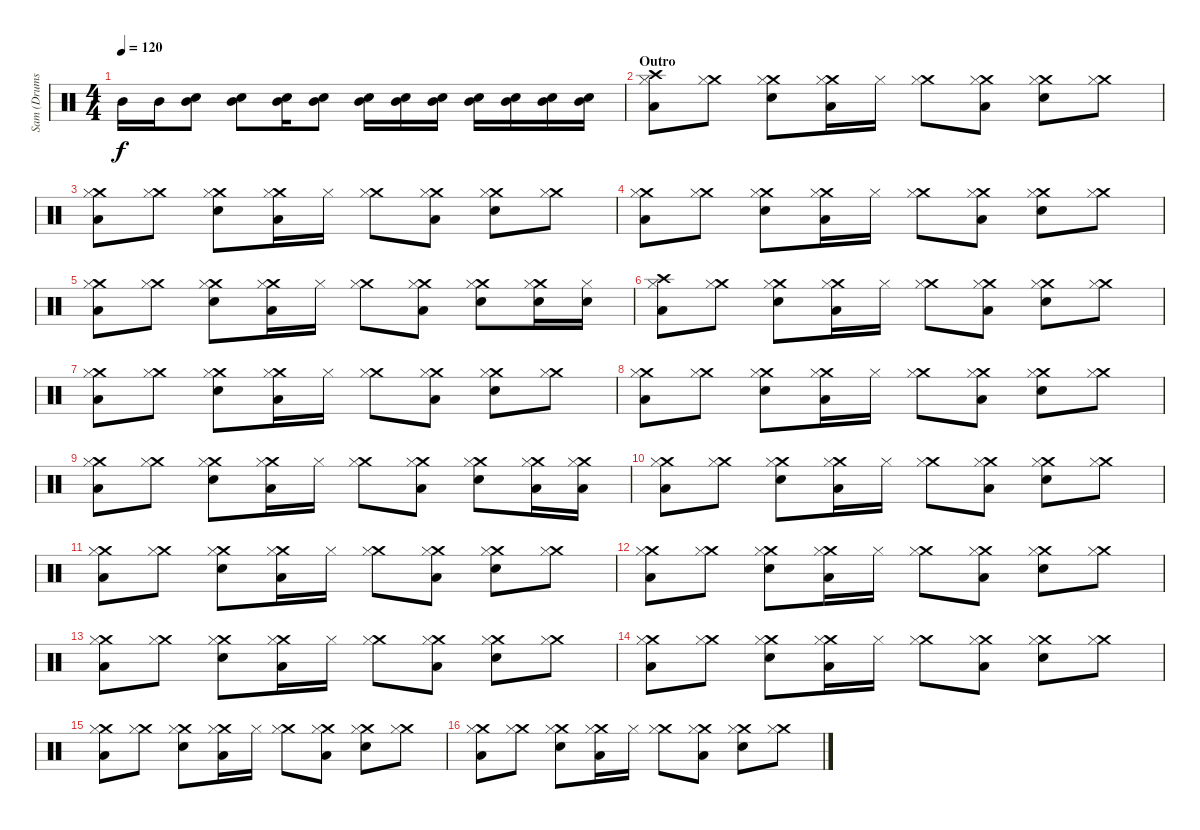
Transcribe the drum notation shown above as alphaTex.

\track ("Sam (Drums)" "Sam (Drums") {instrument percussion}
\staff {score}
\articulation defaults
\ts (4 4)
\tempo 120
\clef neutral
\ks c "Mid Tom (hit)".16{dy f} "Mid Tom (hit)".16
("Snare (hit) 2" "Mid Tom (hit)").8 ("Snare (hit) 2" "Mid Tom (hit)").8 ("Snare (hit) 2" "Mid Tom (hit)").16 ("Snare (hit) 2" "Mid Tom (hit)").8 ("Electric Snare (hit)" "Mid Tom (hit)").16 ("Snare (hit) 2" "Mid Tom (hit)").16 ("Snare (hit) 2" "Mid Tom (hit)").16 ("Electric Snare (hit)" "Mid Tom (hit)").16 ("Electric Snare (hit)" "Mid Tom (hit)").16 ("Snare (hit) 2" "Mid Tom (hit)").16 ("Snare (hit) 2" "Mid Tom (hit)").16 |
\section ("" "Outro")
("Crash high (hit)" "Low Tom (hit)" "Hi-Hat (closed)").8 ("Crash medium (hit)" "Hi-Hat (closed)").8 ("Crash medium (hit)" "Snare (hit) 2" "Hi-Hat (closed)").8 ("Crash medium (hit)" "Low Tom (hit)" "Hi-Hat (closed)").16 "Hi-Hat (closed)".16 ("Crash medium (hit)" "Hi-Hat (closed)").8 ("Crash medium (hit)" "Low Tom (hit)" "Hi-Hat (closed)").8 ("Crash medium (hit)" "Snare (hit) 2" "Hi-Hat (closed)").8 ("Crash medium (hit)" "Hi-Hat (closed)").8 |
("Crash medium (hit)" "Low Tom (hit)" "Hi-Hat (closed)").8 ("Crash medium (hit)" "Hi-Hat (closed)").8 ("Crash medium (hit)" "Snare (hit) 2" "Hi-Hat (closed)").8 ("Crash medium (hit)" "Low Tom (hit)" "Hi-Hat (closed)").16 "Hi-Hat (closed)".16 ("Crash medium (hit)" "Hi-Hat (closed)").8 ("Crash medium (hit)" "Low Tom (hit)" "Hi-Hat (closed)").8 ("Crash medium (hit)" "Snare (hit) 2" "Hi-Hat (closed)").8 ("Crash medium (hit)" "Hi-Hat (closed)").8 |
("Crash medium (hit)" "Low Tom (hit)" "Hi-Hat (closed)").8 ("Crash medium (hit)" "Hi-Hat (closed)").8 ("Crash medium (hit)" "Snare (hit) 2" "Hi-Hat (closed)").8 ("Crash medium (hit)" "Low Tom (hit)" "Hi-Hat (closed)").16 "Hi-Hat (closed)".16 ("Crash medium (hit)" "Hi-Hat (closed)").8 ("Crash medium (hit)" "Low Tom (hit)" "Hi-Hat (closed)").8 ("Crash medium (hit)" "Snare (hit) 2" "Hi-Hat (closed)").8 ("Crash medium (hit)" "Hi-Hat (closed)").8 |
("Crash medium (hit)" "Low Tom (hit)" "Hi-Hat (closed)").8 ("Crash medium (hit)" "Hi-Hat (closed)").8 ("Crash medium (hit)" "Snare (hit) 2" "Hi-Hat (closed)").8 ("Crash medium (hit)" "Low Tom (hit)" "Hi-Hat (closed)").16 "Hi-Hat (closed)".16 ("Crash medium (hit)" "Hi-Hat (closed)").8 ("Crash medium (hit)" "Low Tom (hit)" "Hi-Hat (closed)").8 ("Crash medium (hit)" "Snare (hit) 2" "Hi-Hat (closed)").8 ("Crash medium (hit)" "Electric Snare (hit)" "Hi-Hat (closed)").16 ("Snare (hit) 2" "Hi-Hat (closed)").16 |
("Crash high (hit)" "Low Tom (hit)" "Hi-Hat (closed)").8 ("Crash medium (hit)" "Hi-Hat (closed)").8 ("Crash medium (hit)" "Snare (hit) 2" "Hi-Hat (closed)").8 ("Crash medium (hit)" "Low Tom (hit)" "Hi-Hat (closed)").16 "Hi-Hat (closed)".16 ("Crash medium (hit)" "Hi-Hat (closed)").8 ("Crash medium (hit)" "Low Tom (hit)" "Hi-Hat (closed)").8 ("Crash medium (hit)" "Snare (hit) 2" "Hi-Hat (closed)").8 ("Crash medium (hit)" "Hi-Hat (closed)").8 |
("Crash medium (hit)" "Low Tom (hit)" "Hi-Hat (closed)").8 ("Crash medium (hit)" "Hi-Hat (closed)").8 ("Crash medium (hit)" "Snare (hit) 2" "Hi-Hat (closed)").8 ("Crash medium (hit)" "Low Tom (hit)" "Hi-Hat (closed)").16 "Hi-Hat (closed)".16 ("Crash medium (hit)" "Hi-Hat (closed)").8 ("Crash medium (hit)" "Low Tom (hit)" "Hi-Hat (closed)").8 ("Crash medium (hit)" "Snare (hit) 2" "Hi-Hat (closed)").8 ("Crash medium (hit)" "Hi-Hat (closed)").8 |
("Crash medium (hit)" "Low Tom (hit)" "Hi-Hat (closed)").8 ("Crash medium (hit)" "Hi-Hat (closed)").8 ("Crash medium (hit)" "Snare (hit) 2" "Hi-Hat (closed)").8 ("Crash medium (hit)" "Low Tom (hit)" "Hi-Hat (closed)").16 "Hi-Hat (closed)".16 ("Crash medium (hit)" "Hi-Hat (closed)").8 ("Crash medium (hit)" "Low Tom (hit)" "Hi-Hat (closed)").8 ("Crash medium (hit)" "Snare (hit) 2" "Hi-Hat (closed)").8 ("Crash medium (hit)" "Hi-Hat (closed)").8 |
("Crash medium (hit)" "Low Tom (hit)" "Hi-Hat (closed)").8 ("Crash medium (hit)" "Hi-Hat (closed)").8 ("Crash medium (hit)" "Snare (hit) 2" "Hi-Hat (closed)").8 ("Crash medium (hit)" "Low Tom (hit)" "Hi-Hat (closed)").16 "Hi-Hat (closed)".16 ("Crash medium (hit)" "Hi-Hat (closed)").8 ("Crash medium (hit)" "Low Tom (hit)" "Hi-Hat (closed)").8 ("Crash medium (hit)" "Snare (hit) 2" "Hi-Hat (closed)").8 ("Crash medium (hit)" "Low Tom (hit)" "Hi-Hat (closed)").16 ("Crash medium (hit)" "Low Tom (hit)" "Hi-Hat (closed)").16 |
("Crash medium (hit)" "Low Tom (hit)" "Hi-Hat (closed)").8 ("Crash medium (hit)" "Hi-Hat (closed)").8 ("Crash medium (hit)" "Snare (hit) 2" "Hi-Hat (closed)").8 ("Crash medium (hit)" "Low Tom (hit)" "Hi-Hat (closed)").16 "Hi-Hat (closed)".16 ("Crash medium (hit)" "Hi-Hat (closed)").8 ("Crash medium (hit)" "Low Tom (hit)" "Hi-Hat (closed)").8 ("Crash medium (hit)" "Snare (hit) 2" "Hi-Hat (closed)").8 ("Crash medium (hit)" "Hi-Hat (closed)").8 |
("Crash medium (hit)" "Low Tom (hit)" "Hi-Hat (closed)").8 ("Crash medium (hit)" "Hi-Hat (closed)").8 ("Crash medium (hit)" "Snare (hit) 2" "Hi-Hat (closed)").8 ("Crash medium (hit)" "Low Tom (hit)" "Hi-Hat (closed)").16 "Hi-Hat (closed)".16 ("Crash medium (hit)" "Hi-Hat (closed)").8 ("Crash medium (hit)" "Low Tom (hit)" "Hi-Hat (closed)").8 ("Crash medium (hit)" "Snare (hit) 2" "Hi-Hat (closed)").8 ("Crash medium (hit)" "Hi-Hat (closed)").8 |
("Crash medium (hit)" "Low Tom (hit)" "Hi-Hat (closed)").8 ("Crash medium (hit)" "Hi-Hat (closed)").8 ("Crash medium (hit)" "Snare (hit) 2" "Hi-Hat (closed)").8 ("Crash medium (hit)" "Low Tom (hit)" "Hi-Hat (closed)").16 "Hi-Hat (closed)".16 ("Crash medium (hit)" "Hi-Hat (closed)").8 ("Crash medium (hit)" "Low Tom (hit)" "Hi-Hat (closed)").8 ("Crash medium (hit)" "Snare (hit) 2" "Hi-Hat (closed)").8 ("Crash medium (hit)" "Hi-Hat (closed)").8 |
("Crash medium (hit)" "Low Tom (hit)" "Hi-Hat (closed)").8 ("Crash medium (hit)" "Hi-Hat (closed)").8 ("Crash medium (hit)" "Snare (hit) 2" "Hi-Hat (closed)").8 ("Crash medium (hit)" "Low Tom (hit)" "Hi-Hat (closed)").16 "Hi-Hat (closed)".16 ("Crash medium (hit)" "Hi-Hat (closed)").8 ("Crash medium (hit)" "Low Tom (hit)" "Hi-Hat (closed)").8 ("Crash medium (hit)" "Snare (hit) 2" "Hi-Hat (closed)").8 ("Crash medium (hit)" "Hi-Hat (closed)").8 |
("Crash medium (hit)" "Low Tom (hit)" "Hi-Hat (closed)").8 ("Crash medium (hit)" "Hi-Hat (closed)").8 ("Crash medium (hit)" "Snare (hit) 2" "Hi-Hat (closed)").8 ("Crash medium (hit)" "Low Tom (hit)" "Hi-Hat (closed)").16 "Hi-Hat (closed)".16 ("Crash medium (hit)" "Hi-Hat (closed)").8 ("Crash medium (hit)" "Low Tom (hit)" "Hi-Hat (closed)").8 ("Crash medium (hit)" "Snare (hit) 2" "Hi-Hat (closed)").8 ("Crash medium (hit)" "Hi-Hat (closed)").8 |
("Crash medium (hit)" "Low Tom (hit)" "Hi-Hat (closed)").8 ("Crash medium (hit)" "Hi-Hat (closed)").8 ("Crash medium (hit)" "Snare (hit) 2" "Hi-Hat (closed)").8 ("Crash medium (hit)" "Low Tom (hit)" "Hi-Hat (closed)").16 "Hi-Hat (closed)".16 ("Crash medium (hit)" "Hi-Hat (closed)").8 ("Crash medium (hit)" "Low Tom (hit)" "Hi-Hat (closed)").8 ("Crash medium (hit)" "Snare (hit) 2" "Hi-Hat (closed)").8 ("Crash medium (hit)" "Hi-Hat (closed)").8 |
("Crash medium (hit)" "Low Tom (hit)" "Hi-Hat (closed)").8 ("Crash medium (hit)" "Hi-Hat (closed)").8 ("Crash medium (hit)" "Snare (hit) 2" "Hi-Hat (closed)").8 ("Crash medium (hit)" "Low Tom (hit)" "Hi-Hat (closed)").16 "Hi-Hat (closed)".16 ("Crash medium (hit)" "Hi-Hat (closed)").8 ("Crash medium (hit)" "Low Tom (hit)" "Hi-Hat (closed)").8 ("Crash medium (hit)" "Snare (hit) 2" "Hi-Hat (closed)").8 ("Crash medium (hit)" "Hi-Hat (closed)").8
